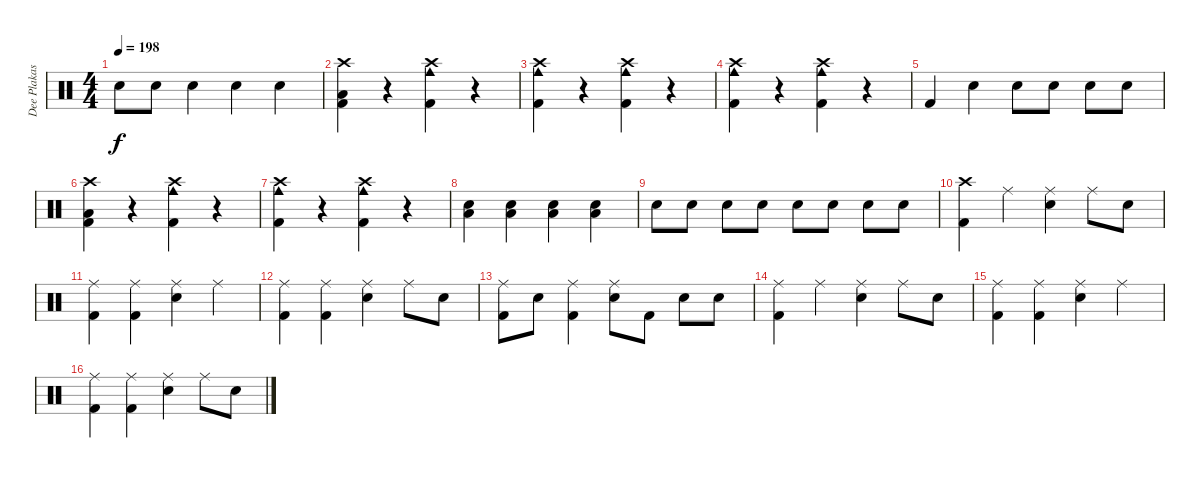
\track ("Dee Plakas" "Dee Plakas") {instrument percussion}
\staff {score}
\articulation defaults
\ts (4 4)
\tempo 198
\clef neutral
\ks c "Snare (hit) 2".8{dy f} "Snare (hit) 2".8 "Snare (hit) 2".4 "Snare (hit) 2".4 "Snare (hit) 2".4
|
("Crash high (hit)" "Low Floor Tom (hit)" "Kick (hit) 2").4 r.4 ("Crash high (hit)" "Cowbell medium (hit)" "Kick (hit) 2").4 r.4 |
("Crash high (hit)" "Cowbell medium (hit)" "Kick (hit) 2").4 r.4 ("Crash high (hit)" "Cowbell medium (hit)" "Kick (hit) 2").4 r.4 |
("Crash high (hit)" "Cowbell medium (hit)" "Kick (hit) 2").4 r.4 ("Crash high (hit)" "Cowbell medium (hit)" "Kick (hit) 2").4 r.4 |
"Kick (hit) 2".4 "Snare (hit) 2".4 "Snare (hit) 2".8 "Snare (hit) 2".8 "Snare (hit) 2".8 "Snare (hit) 2".8 |
("Crash high (hit)" "Low Floor Tom (hit)" "Kick (hit) 2").4 r.4 ("Crash high (hit)" "Cowbell medium (hit)" "Kick (hit) 2").4 r.4 |
("Crash high (hit)" "Cowbell medium (hit)" "Kick (hit) 2").4 r.4 ("Crash high (hit)" "Cowbell medium (hit)" "Kick (hit) 2").4 r.4 |
("Low Floor Tom (hit)" "Snare (hit) 2").4 ("Low Floor Tom (hit)" "Snare (hit) 2").4 ("Low Floor Tom (hit)" "Snare (hit) 2").4 ("Low Floor Tom (hit)" "Snare (hit) 2").4 |
"Snare (hit) 2".8 "Snare (hit) 2".8 "Snare (hit) 2".8 "Snare (hit) 2".8 "Snare (hit) 2".8 "Snare (hit) 2".8 "Snare (hit) 2".8 "Snare (hit) 2".8 |
("Crash high (hit)" "Kick (hit) 2").4 "Ride (middle)".4 ("Ride (middle)" "Snare (hit) 2").4 "Ride (middle)".8 "Snare (hit) 2".8 |
("Ride (middle)" "Kick (hit) 2").4 ("Ride (middle)" "Kick (hit) 2").4 ("Ride (middle)" "Snare (hit) 2").4 "Ride (middle)".4 |
("Ride (middle)" "Kick (hit) 2").4 ("Ride (middle)" "Kick (hit) 2").4 ("Ride (middle)" "Snare (hit) 2").4 "Ride (middle)".8 "Snare (hit) 2".8 |
("Ride (middle)" "Kick (hit) 2").8 "Snare (hit) 2".8 ("Ride (middle)" "Kick (hit) 2").4 ("Ride (middle)" "Snare (hit) 2").8 "Kick (hit) 2".8 "Snare (hit) 2".8 "Snare (hit) 2".8 |
("Ride (middle)" "Kick (hit) 2").4 "Ride (middle)".4 ("Ride (middle)" "Snare (hit) 2").4 "Ride (middle)".8 "Snare (hit) 2".8 |
("Ride (middle)" "Kick (hit) 2").4 ("Ride (middle)" "Kick (hit) 2").4 ("Ride (middle)" "Snare (hit) 2").4 "Ride (middle)".4 |
("Ride (middle)" "Kick (hit) 2").4 ("Ride (middle)" "Kick (hit) 2").4 ("Ride (middle)" "Snare (hit) 2").4 "Ride (middle)".8 "Snare (hit) 2".8
